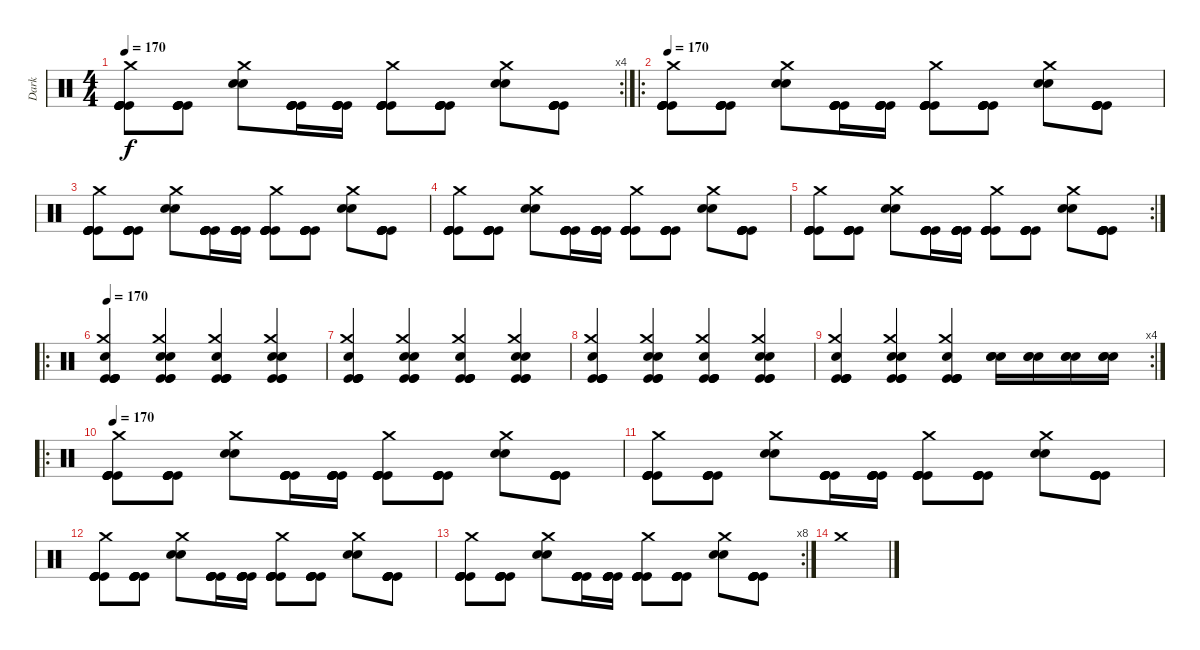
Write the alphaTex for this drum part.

\track ("Dark" "Dark") {instrument percussion}
\staff {score}
\articulation defaults
\rc 4
\ts (4 4)
\tempo 170
\clef neutral
\ks c
("Kick (hit)" "Kick (hit)" "Kick (hit)" "Kick (hit)" "Crash medium (hit)" "Kick (hit)").8{dy f} ("Kick (hit)" "Kick (hit)" "Kick (hit)" "Kick (hit)" "Kick (hit)").8 ("Snare (hit) 2" "Crash medium (hit)" "Snare (hit) 2").8 ("Kick (hit)" "Kick (hit)" "Kick (hit)" "Kick (hit)" "Kick (hit)").16 ("Kick (hit)" "Kick (hit)" "Kick (hit)" "Kick (hit)" "Kick (hit)").16 ("Kick (hit)" "Kick (hit)" "Kick (hit)" "Kick (hit)" "Crash medium (hit)" "Kick (hit)").8 ("Kick (hit)" "Kick (hit)" "Kick (hit)" "Kick (hit)" "Kick (hit)").8 ("Snare (hit) 2" "Crash medium (hit)" "Snare (hit) 2").8 ("Kick (hit)" "Kick (hit)" "Kick (hit)" "Kick (hit)" "Kick (hit)").8 |
\ro
\tempo 170
("Kick (hit)" "Kick (hit)" "Kick (hit)" "Kick (hit)" "Crash medium (hit)" "Kick (hit)").8 ("Kick (hit)" "Kick (hit)" "Kick (hit)" "Kick (hit)" "Kick (hit)").8 ("Snare (hit) 2" "Crash medium (hit)" "Snare (hit) 2").8 ("Kick (hit)" "Kick (hit)" "Kick (hit)" "Kick (hit)" "Kick (hit)").16 ("Kick (hit)" "Kick (hit)" "Kick (hit)" "Kick (hit)" "Kick (hit)").16 ("Kick (hit)" "Kick (hit)" "Kick (hit)" "Kick (hit)" "Crash medium (hit)" "Kick (hit)").8 ("Kick (hit)" "Kick (hit)" "Kick (hit)" "Kick (hit)" "Kick (hit)").8 ("Snare (hit) 2" "Crash medium (hit)" "Snare (hit) 2").8 ("Kick (hit)" "Kick (hit)" "Kick (hit)" "Kick (hit)" "Kick (hit)").8 |
("Kick (hit)" "Kick (hit)" "Kick (hit)" "Kick (hit)" "Crash medium (hit)" "Kick (hit)").8 ("Kick (hit)" "Kick (hit)" "Kick (hit)" "Kick (hit)" "Kick (hit)").8 ("Snare (hit) 2" "Crash medium (hit)" "Snare (hit) 2").8 ("Kick (hit)" "Kick (hit)" "Kick (hit)" "Kick (hit)" "Kick (hit)").16 ("Kick (hit)" "Kick (hit)" "Kick (hit)" "Kick (hit)" "Kick (hit)").16 ("Kick (hit)" "Kick (hit)" "Kick (hit)" "Kick (hit)" "Crash medium (hit)" "Kick (hit)").8 ("Kick (hit)" "Kick (hit)" "Kick (hit)" "Kick (hit)" "Kick (hit)").8 ("Snare (hit) 2" "Crash medium (hit)" "Snare (hit) 2").8 ("Kick (hit)" "Kick (hit)" "Kick (hit)" "Kick (hit)" "Kick (hit)").8 |
("Kick (hit)" "Kick (hit)" "Kick (hit)" "Kick (hit)" "Crash medium (hit)" "Kick (hit)").8 ("Kick (hit)" "Kick (hit)" "Kick (hit)" "Kick (hit)" "Kick (hit)").8 ("Snare (hit) 2" "Crash medium (hit)" "Snare (hit) 2").8 ("Kick (hit)" "Kick (hit)" "Kick (hit)" "Kick (hit)" "Kick (hit)").16 ("Kick (hit)" "Kick (hit)" "Kick (hit)" "Kick (hit)" "Kick (hit)").16 ("Kick (hit)" "Kick (hit)" "Kick (hit)" "Kick (hit)" "Crash medium (hit)" "Kick (hit)").8 ("Kick (hit)" "Kick (hit)" "Kick (hit)" "Kick (hit)" "Kick (hit)").8 ("Snare (hit) 2" "Crash medium (hit)" "Snare (hit) 2").8 ("Kick (hit)" "Kick (hit)" "Kick (hit)" "Kick (hit)" "Kick (hit)").8 |
\rc 2
("Kick (hit)" "Kick (hit)" "Kick (hit)" "Kick (hit)" "Crash medium (hit)" "Kick (hit)").8 ("Kick (hit)" "Kick (hit)" "Kick (hit)" "Kick (hit)" "Kick (hit)").8 ("Snare (hit) 2" "Crash medium (hit)" "Snare (hit) 2").8 ("Kick (hit)" "Kick (hit)" "Kick (hit)" "Kick (hit)" "Kick (hit)").16 ("Kick (hit)" "Kick (hit)" "Kick (hit)" "Kick (hit)" "Kick (hit)").16 ("Kick (hit)" "Kick (hit)" "Kick (hit)" "Kick (hit)" "Crash medium (hit)" "Kick (hit)").8 ("Kick (hit)" "Kick (hit)" "Kick (hit)" "Kick (hit)" "Kick (hit)").8 ("Snare (hit) 2" "Crash medium (hit)" "Snare (hit) 2").8 ("Kick (hit)" "Kick (hit)" "Kick (hit)" "Kick (hit)" "Kick (hit)").8 |
\ro
\tempo 170
("Crash medium (hit)" "Kick (hit)" "Snare (hit) 2" "Kick (hit)" "Kick (hit)" "Kick (hit)").4 ("Crash medium (hit)" "Kick (hit)" "Kick (hit)" "Kick (hit)" "Snare (hit) 2" "Snare (hit) 2").4 ("Crash medium (hit)" "Kick (hit)" "Snare (hit) 2" "Kick (hit)" "Kick (hit)" "Kick (hit)").4 ("Crash medium (hit)" "Kick (hit)" "Kick (hit)" "Kick (hit)" "Snare (hit) 2" "Snare (hit) 2").4 |
("Crash medium (hit)" "Kick (hit)" "Snare (hit) 2" "Kick (hit)" "Kick (hit)" "Kick (hit)").4 ("Crash medium (hit)" "Kick (hit)" "Kick (hit)" "Kick (hit)" "Snare (hit) 2" "Snare (hit) 2").4 ("Crash medium (hit)" "Kick (hit)" "Snare (hit) 2" "Kick (hit)" "Kick (hit)" "Kick (hit)").4 ("Crash medium (hit)" "Kick (hit)" "Kick (hit)" "Kick (hit)" "Snare (hit) 2" "Snare (hit) 2").4 |
("Crash medium (hit)" "Kick (hit)" "Snare (hit) 2" "Kick (hit)" "Kick (hit)" "Kick (hit)").4 ("Crash medium (hit)" "Kick (hit)" "Kick (hit)" "Kick (hit)" "Snare (hit) 2" "Snare (hit) 2").4 ("Crash medium (hit)" "Kick (hit)" "Snare (hit) 2" "Kick (hit)" "Kick (hit)" "Kick (hit)").4 ("Crash medium (hit)" "Kick (hit)" "Kick (hit)" "Kick (hit)" "Snare (hit) 2" "Snare (hit) 2").4 |
\rc 4
("Crash medium (hit)" "Kick (hit)" "Snare (hit) 2" "Kick (hit)" "Kick (hit)" "Kick (hit)").4 ("Crash medium (hit)" "Kick (hit)" "Kick (hit)" "Kick (hit)" "Snare (hit) 2" "Snare (hit) 2").4 ("Crash medium (hit)" "Kick (hit)" "Snare (hit) 2" "Kick (hit)" "Kick (hit)" "Kick (hit)").4 ("Snare (hit) 2" "Snare (hit) 2" "Snare (hit) 2").16 ("Snare (hit) 2" "Snare (hit) 2" "Snare (hit) 2").16 ("Snare (hit)" "Snare (hit) 2" "Snare (hit) 2").16 ("Snare (hit) 2" "Snare (hit) 2" "Snare (hit) 2").16 |
\ro
\tempo 170
("Kick (hit)" "Kick (hit)" "Kick (hit)" "Kick (hit)" "Crash medium (hit)" "Kick (hit)").8 ("Kick (hit)" "Kick (hit)" "Kick (hit)" "Kick (hit)" "Kick (hit)").8 ("Snare (hit) 2" "Crash medium (hit)" "Snare (hit) 2").8 ("Kick (hit)" "Kick (hit)" "Kick (hit)" "Kick (hit)" "Kick (hit)").16 ("Kick (hit)" "Kick (hit)" "Kick (hit)" "Kick (hit)" "Kick (hit)").16 ("Kick (hit)" "Kick (hit)" "Kick (hit)" "Kick (hit)" "Crash medium (hit)" "Kick (hit)").8 ("Kick (hit)" "Kick (hit)" "Kick (hit)" "Kick (hit)" "Kick (hit)").8 ("Snare (hit) 2" "Crash medium (hit)" "Snare (hit) 2").8 ("Kick (hit)" "Kick (hit)" "Kick (hit)" "Kick (hit)" "Kick (hit)").8 |
("Kick (hit)" "Kick (hit)" "Kick (hit)" "Kick (hit)" "Crash medium (hit)" "Kick (hit)").8 ("Kick (hit)" "Kick (hit)" "Kick (hit)" "Kick (hit)" "Kick (hit)").8 ("Snare (hit) 2" "Crash medium (hit)" "Snare (hit) 2").8 ("Kick (hit)" "Kick (hit)" "Kick (hit)" "Kick (hit)" "Kick (hit)").16 ("Kick (hit)" "Kick (hit)" "Kick (hit)" "Kick (hit)" "Kick (hit)").16 ("Kick (hit)" "Kick (hit)" "Kick (hit)" "Kick (hit)" "Crash medium (hit)" "Kick (hit)").8 ("Kick (hit)" "Kick (hit)" "Kick (hit)" "Kick (hit)" "Kick (hit)").8 ("Snare (hit) 2" "Crash medium (hit)" "Snare (hit) 2").8 ("Kick (hit)" "Kick (hit)" "Kick (hit)" "Kick (hit)" "Kick (hit)").8 |
("Kick (hit)" "Kick (hit)" "Kick (hit)" "Kick (hit)" "Crash medium (hit)" "Kick (hit)").8 ("Kick (hit)" "Kick (hit)" "Kick (hit)" "Kick (hit)" "Kick (hit)").8 ("Snare (hit) 2" "Crash medium (hit)" "Snare (hit) 2").8 ("Kick (hit)" "Kick (hit)" "Kick (hit)" "Kick (hit)" "Kick (hit)").16 ("Kick (hit)" "Kick (hit)" "Kick (hit)" "Kick (hit)" "Kick (hit)").16 ("Kick (hit)" "Kick (hit)" "Kick (hit)" "Kick (hit)" "Crash medium (hit)" "Kick (hit)").8 ("Kick (hit)" "Kick (hit)" "Kick (hit)" "Kick (hit)" "Kick (hit)").8 ("Snare (hit) 2" "Crash medium (hit)" "Snare (hit) 2").8 ("Kick (hit)" "Kick (hit)" "Kick (hit)" "Kick (hit)" "Kick (hit)").8 |
\rc 8
("Kick (hit)" "Kick (hit)" "Kick (hit)" "Kick (hit)" "Crash medium (hit)" "Kick (hit)").8 ("Kick (hit)" "Kick (hit)" "Kick (hit)" "Kick (hit)" "Kick (hit)").8 ("Snare (hit) 2" "Crash medium (hit)" "Snare (hit) 2").8 ("Kick (hit)" "Kick (hit)" "Kick (hit)" "Kick (hit)" "Kick (hit)").16 ("Kick (hit)" "Kick (hit)" "Kick (hit)" "Kick (hit)" "Kick (hit)").16 ("Kick (hit)" "Kick (hit)" "Kick (hit)" "Kick (hit)" "Crash medium (hit)" "Kick (hit)").8 ("Kick (hit)" "Kick (hit)" "Kick (hit)" "Kick (hit)" "Kick (hit)").8 ("Snare (hit) 2" "Crash medium (hit)" "Snare (hit) 2").8 ("Kick (hit)" "Kick (hit)" "Kick (hit)" "Kick (hit)" "Kick (hit)").8 |
"Crash medium (hit)".1
